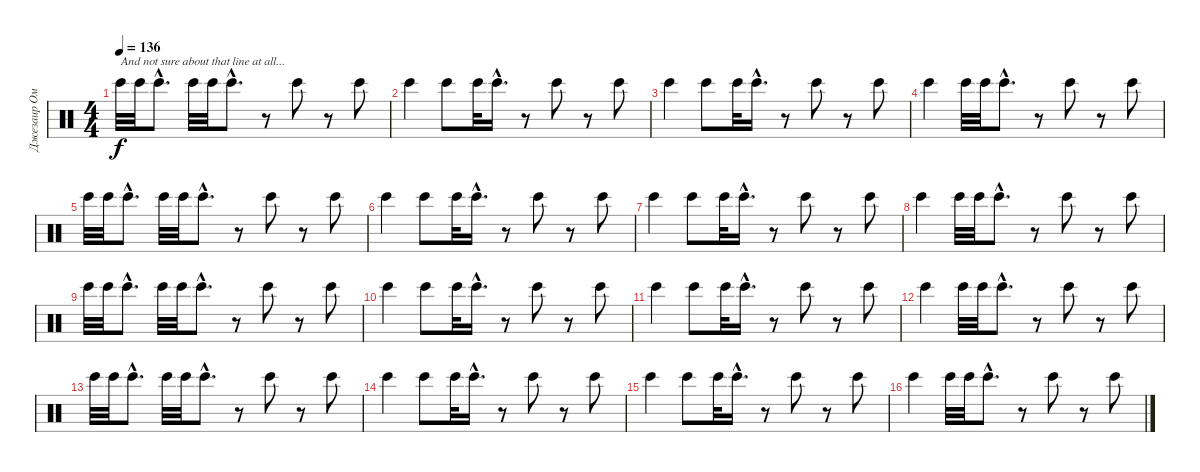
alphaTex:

\track ("Джезаир Омер - Бонго" "Джезаир Ом") {instrument percussion}
\staff {score}
\articulation defaults
\ts (4 4)
\tempo 136
\clef neutral
\ks c "Bongo High (hit)".32{txt "And not sure about that line at all..." dy f} "Bongo High (hit)".32 "Bongo High (hit)"{hac}.8{d} "Bongo High (hit)".32 "Bongo High (hit)".32 "Bongo High (hit)"{hac}.8{d}
r.8 "Bongo High (hit)".8 r.8 "Bongo High (hit)".8 |
"Bongo High (hit)".4 "Bongo High (hit)".8 "Bongo High (hit)".32 "Bongo High (hit)"{hac}.16{d} r.8 "Bongo High (hit)".8 r.8 "Bongo High (hit)".8 |
"Bongo High (hit)".4 "Bongo High (hit)".8 "Bongo High (hit)".32 "Bongo High (hit)"{hac}.16{d} r.8 "Bongo High (hit)".8 r.8 "Bongo High (hit)".8 |
"Bongo High (hit)".4 "Bongo High (hit)".32 "Bongo High (hit)".32 "Bongo High (hit)"{hac}.8{d} r.8 "Bongo High (hit)".8 r.8 "Bongo High (hit)".8 |
"Bongo High (hit)".32 "Bongo High (hit)".32 "Bongo High (hit)"{hac}.8{d} "Bongo High (hit)".32 "Bongo High (hit)".32 "Bongo High (hit)"{hac}.8{d} r.8 "Bongo High (hit)".8 r.8 "Bongo High (hit)".8 |
"Bongo High (hit)".4 "Bongo High (hit)".8 "Bongo High (hit)".32 "Bongo High (hit)"{hac}.16{d} r.8 "Bongo High (hit)".8 r.8 "Bongo High (hit)".8 |
"Bongo High (hit)".4 "Bongo High (hit)".8 "Bongo High (hit)".32 "Bongo High (hit)"{hac}.16{d} r.8 "Bongo High (hit)".8 r.8 "Bongo High (hit)".8 |
"Bongo High (hit)".4 "Bongo High (hit)".32 "Bongo High (hit)".32 "Bongo High (hit)"{hac}.8{d} r.8 "Bongo High (hit)".8 r.8 "Bongo High (hit)".8 |
"Bongo High (hit)".32 "Bongo High (hit)".32 "Bongo High (hit)"{hac}.8{d} "Bongo High (hit)".32 "Bongo High (hit)".32 "Bongo High (hit)"{hac}.8{d} r.8 "Bongo High (hit)".8 r.8 "Bongo High (hit)".8 |
"Bongo High (hit)".4 "Bongo High (hit)".8 "Bongo High (hit)".32 "Bongo High (hit)"{hac}.16{d} r.8 "Bongo High (hit)".8 r.8 "Bongo High (hit)".8 |
"Bongo High (hit)".4 "Bongo High (hit)".8 "Bongo High (hit)".32 "Bongo High (hit)"{hac}.16{d} r.8 "Bongo High (hit)".8 r.8 "Bongo High (hit)".8 |
"Bongo High (hit)".4 "Bongo High (hit)".32 "Bongo High (hit)".32 "Bongo High (hit)"{hac}.8{d} r.8 "Bongo High (hit)".8 r.8 "Bongo High (hit)".8 |
"Bongo High (hit)".32 "Bongo High (hit)".32 "Bongo High (hit)"{hac}.8{d} "Bongo High (hit)".32 "Bongo High (hit)".32 "Bongo High (hit)"{hac}.8{d} r.8 "Bongo High (hit)".8 r.8 "Bongo High (hit)".8 |
"Bongo High (hit)".4 "Bongo High (hit)".8 "Bongo High (hit)".32 "Bongo High (hit)"{hac}.16{d} r.8 "Bongo High (hit)".8 r.8 "Bongo High (hit)".8 |
"Bongo High (hit)".4 "Bongo High (hit)".8 "Bongo High (hit)".32 "Bongo High (hit)"{hac}.16{d} r.8 "Bongo High (hit)".8 r.8 "Bongo High (hit)".8 |
"Bongo High (hit)".4 "Bongo High (hit)".32 "Bongo High (hit)".32 "Bongo High (hit)"{hac}.8{d} r.8 "Bongo High (hit)".8 r.8 "Bongo High (hit)".8
